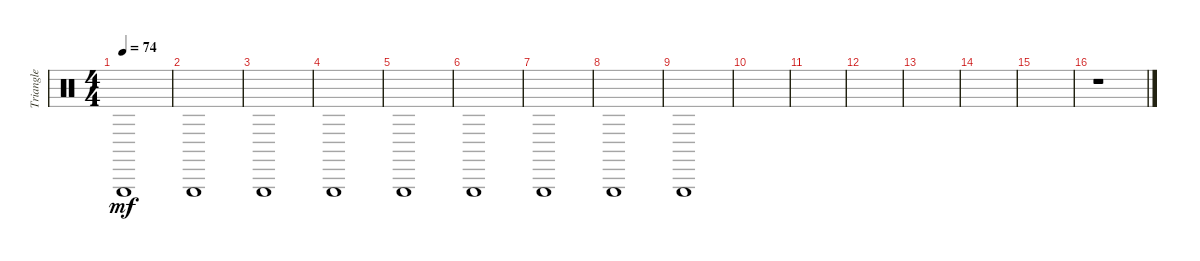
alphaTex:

\track ("Triangle" "Triangle") {instrument percussion}
\staff {score}
\articulation defaults
\ts (4 4)
\tempo 74
\clef neutral
\ks c "Triangle (hit)".1{dy mf}
|
"Triangle (hit)".1 |
"Triangle (hit)".1 |
"Triangle (hit)".1 |
"Triangle (hit)".1 |
"Triangle (hit)".1 |
"Triangle (hit)".1 |
"Triangle (hit)".1 |
"Triangle (hit)".1 |
|
|
|
|
|
|
r.1
